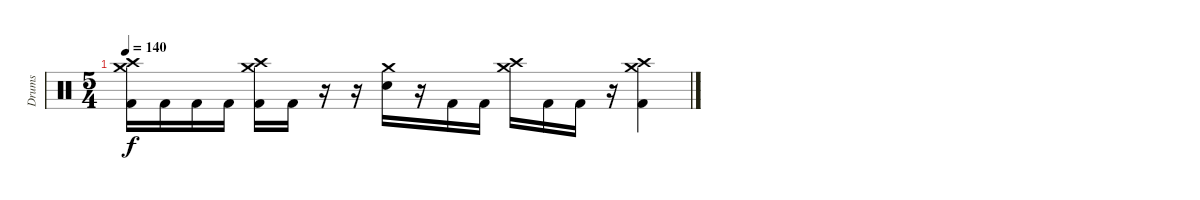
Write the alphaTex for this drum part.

\track ("Drums" "Drums") {instrument percussion}
\staff {score}
\articulation defaults
\ts (5 4)
\tempo 140
\clef neutral
\ks c
("Crash medium (hit)" "Crash high (hit)" "Kick (hit) 2").16{dy f} "Kick (hit) 2".16 "Kick (hit) 2".16 "Kick (hit) 2".16 ("Crash medium (hit)" "Crash high (hit)" "Kick (hit) 2").16 "Kick (hit) 2".16 r.16 r.16 ("Crash medium (hit)" "Electric Snare (hit)").16 r.16 "Kick (hit) 2".16 "Kick (hit) 2".16 ("Crash medium (hit)" "Crash high (hit)").16 "Kick (hit) 2".16 "Kick (hit) 2".16 r.16 ("Crash medium (hit)" "Crash high (hit)" "Kick (hit) 2").4
